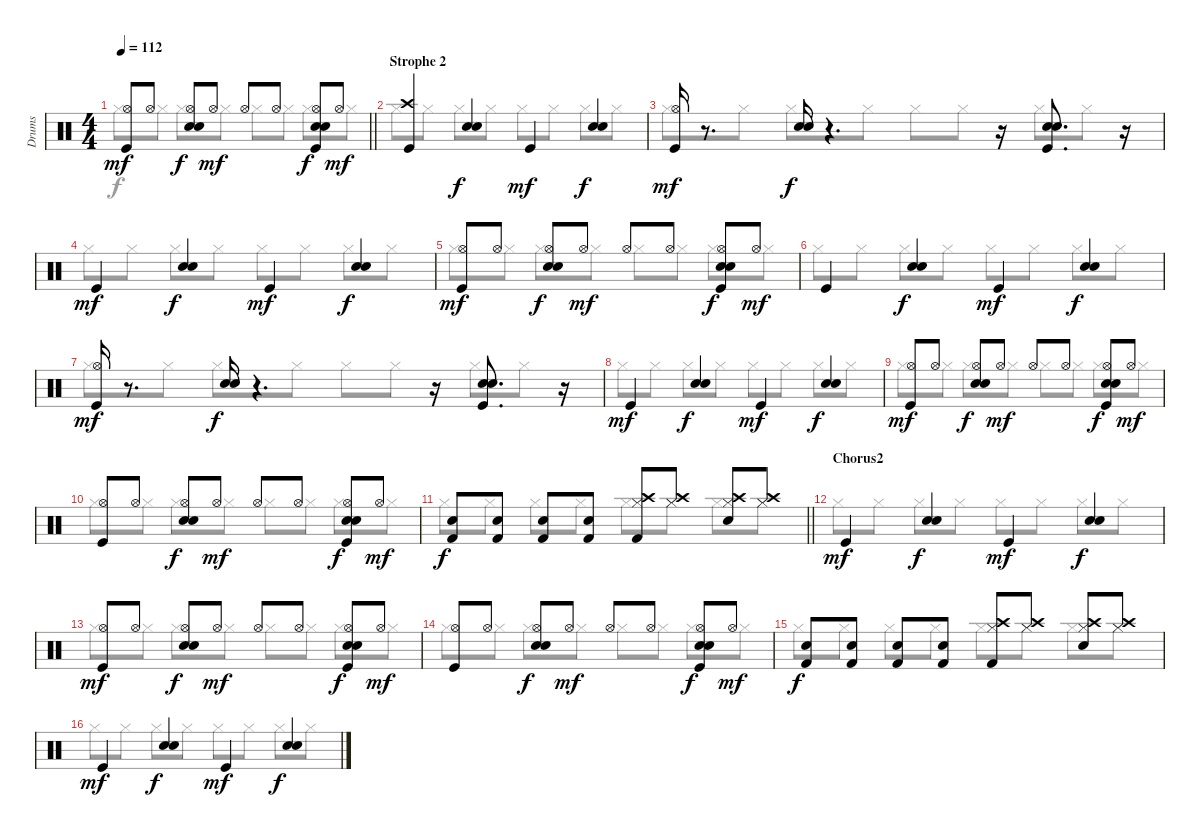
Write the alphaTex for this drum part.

\track ("Drums" "Drums") {instrument percussion}
\staff {score}
\articulation defaults
\voice
\ts (4 4)
\tempo 112
\clef neutral
\barLineRight lightlight
\ks c
("Hi-Hat (open)" "Kick (hit)").8{dy mf} "Hi-Hat (open)".8 ("Hi-Hat (open)" "Electric Snare (hit)" "Snare (hit) 2").8{dy f} "Hi-Hat (open)".8{dy mf} "Hi-Hat (open)".8 "Hi-Hat (open)".8 ("Hi-Hat (open)" "Electric Snare (hit)" "Snare (hit) 2" "Kick (hit)").8{dy f} "Hi-Hat (open)".8{dy mf} |
\section ("" "Strophe 2")
("Kick (hit)" "Crash high (hit)").4 ("Electric Snare (hit)" "Snare (hit) 2").4{dy f} "Kick (hit)".4{dy mf} ("Electric Snare (hit)" "Snare (hit) 2").4{dy f} |
("Hi-Hat (open)" "Kick (hit)").16{dy mf} r.8{d} ("Electric Snare (hit)" "Snare (hit) 2").16{dy f} r.4{d} r.16 ("Electric Snare (hit)" "Snare (hit) 2" "Kick (hit)").8{d} r.16 |
"Kick (hit)".4{dy mf} ("Electric Snare (hit)" "Snare (hit) 2").4{dy f} "Kick (hit)".4{dy mf} ("Electric Snare (hit)" "Snare (hit) 2").4{dy f} |
("Hi-Hat (open)" "Kick (hit)").8{dy mf} "Hi-Hat (open)".8 ("Hi-Hat (open)" "Electric Snare (hit)" "Snare (hit) 2").8{dy f} "Hi-Hat (open)".8{dy mf} "Hi-Hat (open)".8 "Hi-Hat (open)".8 ("Hi-Hat (open)" "Electric Snare (hit)" "Snare (hit) 2" "Kick (hit)").8{dy f} "Hi-Hat (open)".8{dy mf} |
"Kick (hit)".4 ("Electric Snare (hit)" "Snare (hit) 2").4{dy f} "Kick (hit)".4{dy mf} ("Electric Snare (hit)" "Snare (hit) 2").4{dy f} |
("Hi-Hat (open)" "Kick (hit)").16{dy mf} r.8{d} ("Electric Snare (hit)" "Snare (hit) 2").16{dy f} r.4{d} r.16 ("Electric Snare (hit)" "Snare (hit) 2" "Kick (hit)").8{d} r.16 |
"Kick (hit)".4{dy mf} ("Electric Snare (hit)" "Snare (hit) 2").4{dy f} "Kick (hit)".4{dy mf} ("Electric Snare (hit)" "Snare (hit) 2").4{dy f} |
("Hi-Hat (open)" "Kick (hit)").8{dy mf} "Hi-Hat (open)".8 ("Hi-Hat (open)" "Electric Snare (hit)" "Snare (hit) 2").8{dy f} "Hi-Hat (open)".8{dy mf} "Hi-Hat (open)".8 "Hi-Hat (open)".8 ("Hi-Hat (open)" "Electric Snare (hit)" "Snare (hit) 2" "Kick (hit)").8{dy f} "Hi-Hat (open)".8{dy mf} |
("Hi-Hat (open)" "Kick (hit)").8 "Hi-Hat (open)".8 ("Hi-Hat (open)" "Electric Snare (hit)" "Snare (hit) 2").8{dy f} "Hi-Hat (open)".8{dy mf} "Hi-Hat (open)".8 "Hi-Hat (open)".8 ("Hi-Hat (open)" "Electric Snare (hit)" "Snare (hit) 2" "Kick (hit)").8{dy f} "Hi-Hat (open)".8{dy mf} |
\barLineRight lightlight
("Snare (hit) 2" "Kick (hit) 2").8{dy f} ("Snare (hit) 2" "Kick (hit) 2").8 ("Snare (hit) 2" "Kick (hit) 2").8 ("Snare (hit) 2" "Kick (hit) 2").8 ("Crash high (hit)" "Kick (hit) 2" "Hi-Hat (closed)").8 ("Crash high (hit)" "Hi-Hat (closed)").8 ("Crash high (hit)" "Snare (hit) 2" "Hi-Hat (closed)").8 ("Crash high (hit)" "Hi-Hat (closed)").8 |
\section ("" "Chorus2")
"Kick (hit)".4{dy mf} ("Electric Snare (hit)" "Snare (hit) 2").4{dy f} "Kick (hit)".4{dy mf} ("Electric Snare (hit)" "Snare (hit) 2").4{dy f} |
("Hi-Hat (open)" "Kick (hit)").8{dy mf} "Hi-Hat (open)".8 ("Hi-Hat (open)" "Electric Snare (hit)" "Snare (hit) 2").8{dy f} "Hi-Hat (open)".8{dy mf} "Hi-Hat (open)".8 "Hi-Hat (open)".8 ("Hi-Hat (open)" "Electric Snare (hit)" "Snare (hit) 2" "Kick (hit)").8{dy f} "Hi-Hat (open)".8{dy mf} |
("Hi-Hat (open)" "Kick (hit)").8 "Hi-Hat (open)".8 ("Hi-Hat (open)" "Electric Snare (hit)" "Snare (hit) 2").8{dy f} "Hi-Hat (open)".8{dy mf} "Hi-Hat (open)".8 "Hi-Hat (open)".8 ("Hi-Hat (open)" "Electric Snare (hit)" "Snare (hit) 2" "Kick (hit)").8{dy f} "Hi-Hat (open)".8{dy mf} |
("Snare (hit) 2" "Kick (hit) 2").8{dy f} ("Snare (hit) 2" "Kick (hit) 2").8 ("Snare (hit) 2" "Kick (hit) 2").8 ("Snare (hit) 2" "Kick (hit) 2").8 ("Crash high (hit)" "Kick (hit) 2" "Hi-Hat (closed)").8 ("Crash high (hit)" "Hi-Hat (closed)").8 ("Crash high (hit)" "Snare (hit) 2" "Hi-Hat (closed)").8 ("Crash high (hit)" "Hi-Hat (closed)").8 |
"Kick (hit)".4{dy mf} ("Electric Snare (hit)" "Snare (hit) 2").4{dy f} "Kick (hit)".4{dy mf} ("Electric Snare (hit)" "Snare (hit) 2").4{dy f}
\voice
\clef neutral
\ottava regular
\simile none
\barLineRight lightlight
\ks c "Hi-Hat (closed)".8{dy f} "Hi-Hat (closed)".8 "Hi-Hat (closed)".8 "Hi-Hat (closed)".8 "Hi-Hat (closed)".8 "Hi-Hat (closed)".8 "Hi-Hat (closed)".8 "Hi-Hat (closed)".8
|
"Hi-Hat (closed)".8 "Hi-Hat (closed)".8 "Hi-Hat (closed)".8 "Hi-Hat (closed)".8 "Hi-Hat (closed)".8 "Hi-Hat (closed)".8 "Hi-Hat (closed)".8 "Hi-Hat (closed)".8 |
"Hi-Hat (closed)".8 "Hi-Hat (closed)".8 "Hi-Hat (closed)".8 "Hi-Hat (closed)".8 "Hi-Hat (closed)".8 "Hi-Hat (closed)".8 "Hi-Hat (closed)".8 "Hi-Hat (closed)".8 |
"Hi-Hat (closed)".8 "Hi-Hat (closed)".8 "Hi-Hat (closed)".8 "Hi-Hat (closed)".8 "Hi-Hat (closed)".8 "Hi-Hat (closed)".8 "Hi-Hat (closed)".8 "Hi-Hat (closed)".8 |
"Hi-Hat (closed)".8 "Hi-Hat (closed)".8 "Hi-Hat (closed)".8 "Hi-Hat (closed)".8 "Hi-Hat (closed)".8 "Hi-Hat (closed)".8 "Hi-Hat (closed)".8 "Hi-Hat (closed)".8 |
"Hi-Hat (closed)".8 "Hi-Hat (closed)".8 "Hi-Hat (closed)".8 "Hi-Hat (closed)".8 "Hi-Hat (closed)".8 "Hi-Hat (closed)".8 "Hi-Hat (closed)".8 "Hi-Hat (closed)".8 |
"Hi-Hat (closed)".8 "Hi-Hat (closed)".8 "Hi-Hat (closed)".8 "Hi-Hat (closed)".8 "Hi-Hat (closed)".8 "Hi-Hat (closed)".8 "Hi-Hat (closed)".8 "Hi-Hat (closed)".8 |
"Hi-Hat (closed)".8 "Hi-Hat (closed)".8 "Hi-Hat (closed)".8 "Hi-Hat (closed)".8 "Hi-Hat (closed)".8 "Hi-Hat (closed)".8 "Hi-Hat (closed)".8 "Hi-Hat (closed)".8 |
"Hi-Hat (closed)".8 "Hi-Hat (closed)".8 "Hi-Hat (closed)".8 "Hi-Hat (closed)".8 "Hi-Hat (closed)".8 "Hi-Hat (closed)".8 "Hi-Hat (closed)".8 "Hi-Hat (closed)".8 |
"Hi-Hat (closed)".8 "Hi-Hat (closed)".8 "Hi-Hat (closed)".8 "Hi-Hat (closed)".8 "Hi-Hat (closed)".8 "Hi-Hat (closed)".8 "Hi-Hat (closed)".8 "Hi-Hat (closed)".8 |
\barLineRight lightlight "Hi-Hat (closed)".8 "Hi-Hat (closed)".8 "Hi-Hat (closed)".8 "Hi-Hat (closed)".8 "Hi-Hat (closed)".8 "Hi-Hat (closed)".8 "Hi-Hat (closed)".8 "Hi-Hat (closed)".8
|
"Hi-Hat (closed)".8 "Hi-Hat (closed)".8 "Hi-Hat (closed)".8 "Hi-Hat (closed)".8 "Hi-Hat (closed)".8 "Hi-Hat (closed)".8 "Hi-Hat (closed)".8 "Hi-Hat (closed)".8 |
"Hi-Hat (closed)".8 "Hi-Hat (closed)".8 "Hi-Hat (closed)".8 "Hi-Hat (closed)".8 "Hi-Hat (closed)".8 "Hi-Hat (closed)".8 "Hi-Hat (closed)".8 "Hi-Hat (closed)".8 |
"Hi-Hat (closed)".8 "Hi-Hat (closed)".8 "Hi-Hat (closed)".8 "Hi-Hat (closed)".8 "Hi-Hat (closed)".8 "Hi-Hat (closed)".8 "Hi-Hat (closed)".8 "Hi-Hat (closed)".8 |
"Hi-Hat (closed)".8 "Hi-Hat (closed)".8 "Hi-Hat (closed)".8 "Hi-Hat (closed)".8 "Hi-Hat (closed)".8 "Hi-Hat (closed)".8 "Hi-Hat (closed)".8 "Hi-Hat (closed)".8 |
"Hi-Hat (closed)".8 "Hi-Hat (closed)".8 "Hi-Hat (closed)".8 "Hi-Hat (closed)".8 "Hi-Hat (closed)".8 "Hi-Hat (closed)".8 "Hi-Hat (closed)".8 "Hi-Hat (closed)".8
